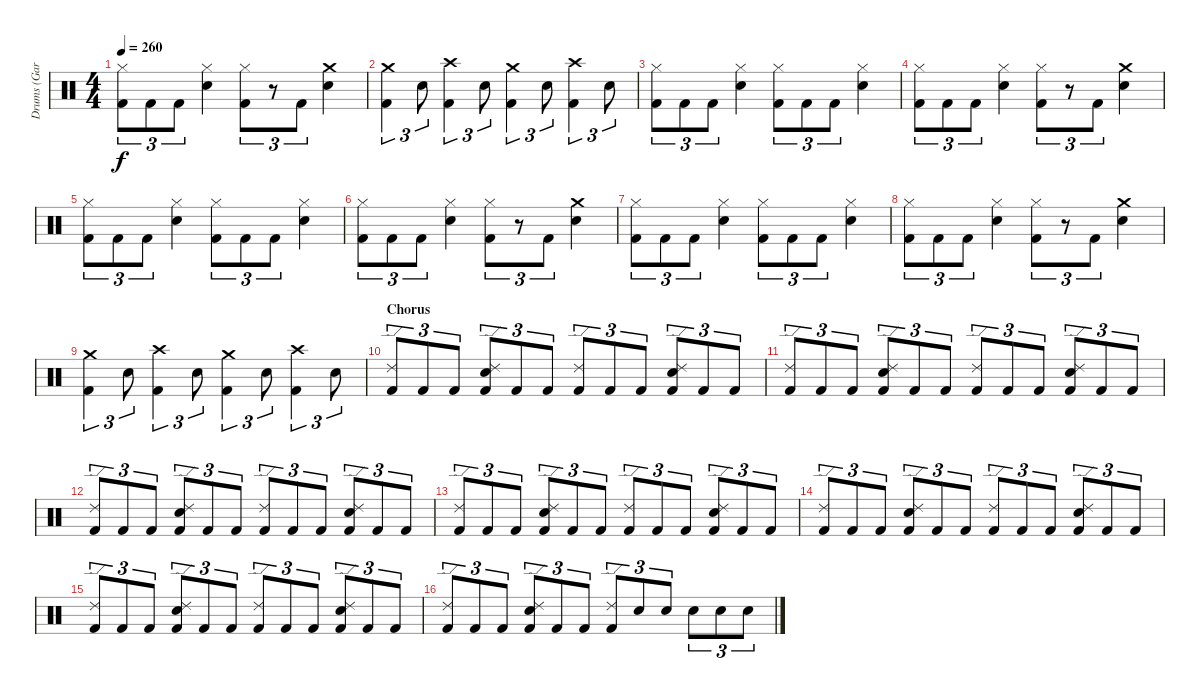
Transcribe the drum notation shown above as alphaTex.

\track ("Drums (Gar Samuelson)" "Drums (Gar") {instrument percussion}
\staff {score}
\articulation defaults
\ts (4 4)
\tempo 260
\clef neutral
\ks c
("Hi-Hat (closed)" "Kick (hit) 2").8{tu (3 2) dy f} "Kick (hit) 2".8{tu (3 2)} "Kick (hit) 2".8{tu (3 2)} ("Hi-Hat (closed)" "Snare (hit) 2").4 ("Hi-Hat (closed)" "Kick (hit) 2").8{tu (3 2)} r.8{tu (3 2)} "Kick (hit) 2".8{tu (3 2)} ("Crash medium (hit)" "Snare (hit) 2").4 |
("Crash medium (hit)" "Kick (hit) 2").4{tu (3 2)} "Snare (hit) 2".8{tu (3 2)} ("Crash high (hit)" "Kick (hit) 2").4{tu (3 2)} "Snare (hit) 2".8{tu (3 2)} ("Crash medium (hit)" "Kick (hit) 2").4{tu (3 2)} "Snare (hit) 2".8{tu (3 2)} ("Crash high (hit)" "Kick (hit) 2").4{tu (3 2)} "Snare (hit) 2".8{tu (3 2)} |
("Hi-Hat (closed)" "Kick (hit) 2").8{tu (3 2)} "Kick (hit) 2".8{tu (3 2)} "Kick (hit) 2".8{tu (3 2)} ("Hi-Hat (closed)" "Snare (hit) 2").4 ("Hi-Hat (closed)" "Kick (hit) 2").8{tu (3 2)} "Kick (hit) 2".8{tu (3 2)} "Kick (hit) 2".8{tu (3 2)} ("Hi-Hat (closed)" "Snare (hit) 2").4 |
("Hi-Hat (closed)" "Kick (hit) 2").8{tu (3 2)} "Kick (hit) 2".8{tu (3 2)} "Kick (hit) 2".8{tu (3 2)} ("Hi-Hat (closed)" "Snare (hit) 2").4 ("Hi-Hat (closed)" "Kick (hit) 2").8{tu (3 2)} r.8{tu (3 2)} "Kick (hit) 2".8{tu (3 2)} ("Crash medium (hit)" "Snare (hit) 2").4 |
("Hi-Hat (closed)" "Kick (hit) 2").8{tu (3 2)} "Kick (hit) 2".8{tu (3 2)} "Kick (hit) 2".8{tu (3 2)} ("Hi-Hat (closed)" "Snare (hit) 2").4 ("Hi-Hat (closed)" "Kick (hit) 2").8{tu (3 2)} "Kick (hit) 2".8{tu (3 2)} "Kick (hit) 2".8{tu (3 2)} ("Hi-Hat (closed)" "Snare (hit) 2").4 |
("Hi-Hat (closed)" "Kick (hit) 2").8{tu (3 2)} "Kick (hit) 2".8{tu (3 2)} "Kick (hit) 2".8{tu (3 2)} ("Hi-Hat (closed)" "Snare (hit) 2").4 ("Hi-Hat (closed)" "Kick (hit) 2").8{tu (3 2)} r.8{tu (3 2)} "Kick (hit) 2".8{tu (3 2)} ("Crash medium (hit)" "Snare (hit) 2").4 |
("Hi-Hat (closed)" "Kick (hit) 2").8{tu (3 2)} "Kick (hit) 2".8{tu (3 2)} "Kick (hit) 2".8{tu (3 2)} ("Hi-Hat (closed)" "Snare (hit) 2").4 ("Hi-Hat (closed)" "Kick (hit) 2").8{tu (3 2)} "Kick (hit) 2".8{tu (3 2)} "Kick (hit) 2".8{tu (3 2)} ("Hi-Hat (closed)" "Snare (hit) 2").4 |
("Hi-Hat (closed)" "Kick (hit) 2").8{tu (3 2)} "Kick (hit) 2".8{tu (3 2)} "Kick (hit) 2".8{tu (3 2)} ("Hi-Hat (closed)" "Snare (hit) 2").4 ("Hi-Hat (closed)" "Kick (hit) 2").8{tu (3 2)} r.8{tu (3 2)} "Kick (hit) 2".8{tu (3 2)} ("Crash medium (hit)" "Snare (hit) 2").4 |
("Crash medium (hit)" "Kick (hit) 2").4{tu (3 2)} "Snare (hit) 2".8{tu (3 2)} ("Crash high (hit)" "Kick (hit) 2").4{tu (3 2)} "Snare (hit) 2".8{tu (3 2)} ("Crash medium (hit)" "Kick (hit) 2").4{tu (3 2)} "Snare (hit) 2".8{tu (3 2)} ("Crash high (hit)" "Kick (hit) 2").4{tu (3 2)} "Snare (hit) 2".8{tu (3 2)} |
\section ("" "Chorus")
("Ride (edge) 2" "Kick (hit) 2").8{tu (3 2)} "Kick (hit) 2".8{tu (3 2)} "Kick (hit) 2".8{tu (3 2)} ("Ride (edge) 2" "Snare (hit) 2" "Kick (hit) 2").8{tu (3 2)} "Kick (hit) 2".8{tu (3 2)} "Kick (hit) 2".8{tu (3 2)} ("Ride (edge) 2" "Kick (hit) 2").8{tu (3 2)} "Kick (hit) 2".8{tu (3 2)} "Kick (hit) 2".8{tu (3 2)} ("Ride (edge) 2" "Snare (hit) 2" "Kick (hit) 2").8{tu (3 2)} "Kick (hit) 2".8{tu (3 2)} "Kick (hit) 2".8{tu (3 2)} |
("Ride (edge) 2" "Kick (hit) 2").8{tu (3 2)} "Kick (hit) 2".8{tu (3 2)} "Kick (hit) 2".8{tu (3 2)} ("Ride (edge) 2" "Snare (hit) 2" "Kick (hit) 2").8{tu (3 2)} "Kick (hit) 2".8{tu (3 2)} "Kick (hit) 2".8{tu (3 2)} ("Ride (edge) 2" "Kick (hit) 2").8{tu (3 2)} "Kick (hit) 2".8{tu (3 2)} "Kick (hit) 2".8{tu (3 2)} ("Ride (edge) 2" "Snare (hit) 2" "Kick (hit) 2").8{tu (3 2)} "Kick (hit) 2".8{tu (3 2)} "Kick (hit) 2".8{tu (3 2)} |
("Ride (edge) 2" "Kick (hit) 2").8{tu (3 2)} "Kick (hit) 2".8{tu (3 2)} "Kick (hit) 2".8{tu (3 2)} ("Ride (edge) 2" "Snare (hit) 2" "Kick (hit) 2").8{tu (3 2)} "Kick (hit) 2".8{tu (3 2)} "Kick (hit) 2".8{tu (3 2)} ("Ride (edge) 2" "Kick (hit) 2").8{tu (3 2)} "Kick (hit) 2".8{tu (3 2)} "Kick (hit) 2".8{tu (3 2)} ("Ride (edge) 2" "Snare (hit) 2" "Kick (hit) 2").8{tu (3 2)} "Kick (hit) 2".8{tu (3 2)} "Kick (hit) 2".8{tu (3 2)} |
("Ride (edge) 2" "Kick (hit) 2").8{tu (3 2)} "Kick (hit) 2".8{tu (3 2)} "Kick (hit) 2".8{tu (3 2)} ("Ride (edge) 2" "Snare (hit) 2" "Kick (hit) 2").8{tu (3 2)} "Kick (hit) 2".8{tu (3 2)} "Kick (hit) 2".8{tu (3 2)} ("Ride (edge) 2" "Kick (hit) 2").8{tu (3 2)} "Kick (hit) 2".8{tu (3 2)} "Kick (hit) 2".8{tu (3 2)} ("Ride (edge) 2" "Snare (hit) 2" "Kick (hit) 2").8{tu (3 2)} "Kick (hit) 2".8{tu (3 2)} "Kick (hit) 2".8{tu (3 2)} |
("Ride (edge) 2" "Kick (hit) 2").8{tu (3 2)} "Kick (hit) 2".8{tu (3 2)} "Kick (hit) 2".8{tu (3 2)} ("Ride (edge) 2" "Snare (hit) 2" "Kick (hit) 2").8{tu (3 2)} "Kick (hit) 2".8{tu (3 2)} "Kick (hit) 2".8{tu (3 2)} ("Ride (edge) 2" "Kick (hit) 2").8{tu (3 2)} "Kick (hit) 2".8{tu (3 2)} "Kick (hit) 2".8{tu (3 2)} ("Ride (edge) 2" "Snare (hit) 2" "Kick (hit) 2").8{tu (3 2)} "Kick (hit) 2".8{tu (3 2)} "Kick (hit) 2".8{tu (3 2)} |
("Ride (edge) 2" "Kick (hit) 2").8{tu (3 2)} "Kick (hit) 2".8{tu (3 2)} "Kick (hit) 2".8{tu (3 2)} ("Ride (edge) 2" "Snare (hit) 2" "Kick (hit) 2").8{tu (3 2)} "Kick (hit) 2".8{tu (3 2)} "Kick (hit) 2".8{tu (3 2)} ("Ride (edge) 2" "Kick (hit) 2").8{tu (3 2)} "Kick (hit) 2".8{tu (3 2)} "Kick (hit) 2".8{tu (3 2)} ("Ride (edge) 2" "Snare (hit) 2" "Kick (hit) 2").8{tu (3 2)} "Kick (hit) 2".8{tu (3 2)} "Kick (hit) 2".8{tu (3 2)} |
("Ride (edge) 2" "Kick (hit) 2").8{tu (3 2)} "Kick (hit) 2".8{tu (3 2)} "Kick (hit) 2".8{tu (3 2)} ("Ride (edge) 2" "Snare (hit) 2" "Kick (hit) 2").8{tu (3 2)} "Kick (hit) 2".8{tu (3 2)} "Kick (hit) 2".8{tu (3 2)} ("Ride (edge) 2" "Kick (hit) 2").8{tu (3 2)} "Snare (hit) 2".8{tu (3 2)} "Snare (hit) 2".8{tu (3 2)} "Snare (hit) 2".8{tu (3 2)} "Snare (hit) 2".8{tu (3 2)} "Snare (hit) 2".8{tu (3 2)}
